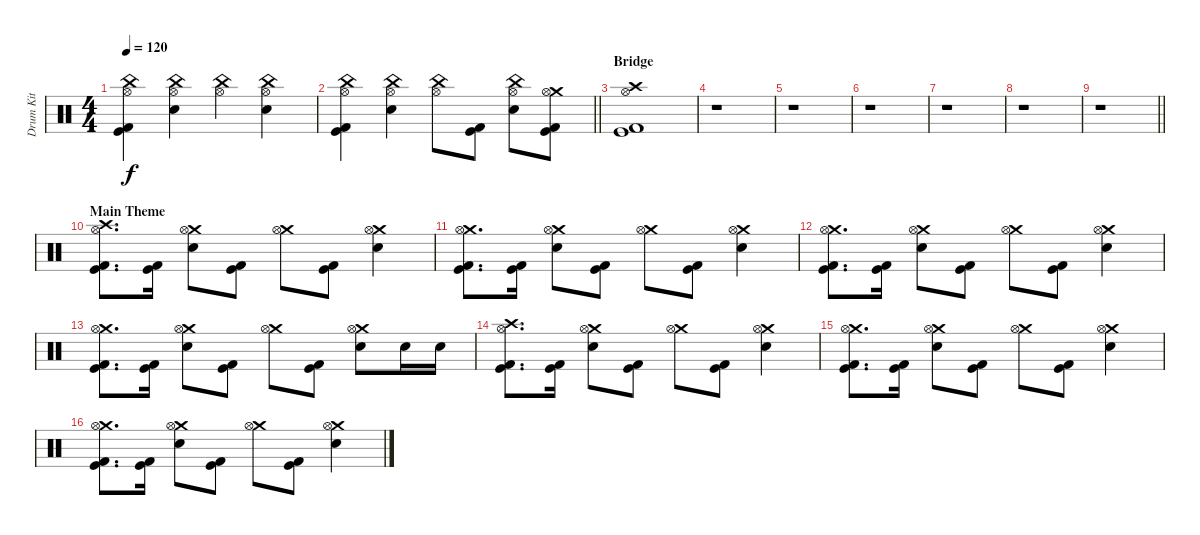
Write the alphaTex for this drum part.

\track ("Drum Kit" "Drum Kit") {instrument percussion}
\staff {score}
\articulation defaults
\ts (4 4)
\tempo 120
\clef neutral
\ks c
("China (hit)" "Hi-Hat (open)" "Kick (hit)" "Kick (hit) 2").4{dy f} ("China (hit)" "Hi-Hat (open)" "Electric Snare (hit)").4 ("China (hit)" "Hi-Hat (open)").4 ("China (hit)" "Hi-Hat (open)" "Electric Snare (hit)").4 |
\barLineRight lightlight
("China (hit)" "Hi-Hat (open)" "Kick (hit)" "Kick (hit) 2").4 ("China (hit)" "Hi-Hat (open)" "Electric Snare (hit)").4 ("China (hit)" "Hi-Hat (open)").8 ("Kick (hit)" "Kick (hit) 2").8 ("China (hit)" "Hi-Hat (open)" "Electric Snare (hit)").8 ("Crash medium (hit)" "Hi-Hat (open)" "Kick (hit)" "Kick (hit) 2").8 |
\section ("" "Bridge")
("Crash high (hit)" "Hi-Hat (open)" "Kick (hit)" "Kick (hit) 2").1 |
r.1 |
r.1 |
r.1 |
r.1 |
r.1 |
\barLineRight lightlight
r.1 |
\section ("" "Main Theme")
("Crash high (hit)" "Hi-Hat (open)" "Kick (hit)" "Kick (hit) 2").8{d} ("Kick (hit)" "Kick (hit) 2").16 ("Crash medium (hit)" "Hi-Hat (open)" "Electric Snare (hit)").8 ("Kick (hit)" "Kick (hit) 2").8 ("Crash medium (hit)" "Hi-Hat (open)").8 ("Kick (hit)" "Kick (hit) 2").8 ("Crash medium (hit)" "Hi-Hat (open)" "Electric Snare (hit)").4 |
("Crash medium (hit)" "Hi-Hat (open)" "Kick (hit)" "Kick (hit) 2").8{d} ("Kick (hit)" "Kick (hit) 2").16 ("Crash medium (hit)" "Hi-Hat (open)" "Electric Snare (hit)").8 ("Kick (hit)" "Kick (hit) 2").8 ("Crash medium (hit)" "Hi-Hat (open)").8 ("Kick (hit)" "Kick (hit) 2").8 ("Crash medium (hit)" "Hi-Hat (open)" "Electric Snare (hit)").4 |
("Crash medium (hit)" "Hi-Hat (open)" "Kick (hit)" "Kick (hit) 2").8{d} ("Kick (hit)" "Kick (hit) 2").16 ("Crash medium (hit)" "Hi-Hat (open)" "Electric Snare (hit)").8 ("Kick (hit)" "Kick (hit) 2").8 ("Crash medium (hit)" "Hi-Hat (open)").8 ("Kick (hit)" "Kick (hit) 2").8 ("Crash medium (hit)" "Hi-Hat (open)" "Electric Snare (hit)").4 |
("Crash medium (hit)" "Hi-Hat (open)" "Kick (hit)" "Kick (hit) 2").8{d} ("Kick (hit)" "Kick (hit) 2").16 ("Crash medium (hit)" "Hi-Hat (open)" "Electric Snare (hit)").8 ("Kick (hit)" "Kick (hit) 2").8 ("Crash medium (hit)" "Hi-Hat (open)").8 ("Kick (hit)" "Kick (hit) 2").8 ("Crash medium (hit)" "Hi-Hat (open)" "Electric Snare (hit)").8 "Electric Snare (hit)".16 "Electric Snare (hit)".16 |
("Crash high (hit)" "Hi-Hat (open)" "Kick (hit)" "Kick (hit) 2").8{d} ("Kick (hit)" "Kick (hit) 2").16 ("Crash medium (hit)" "Hi-Hat (open)" "Electric Snare (hit)").8 ("Kick (hit)" "Kick (hit) 2").8 ("Crash medium (hit)" "Hi-Hat (open)").8 ("Kick (hit)" "Kick (hit) 2").8 ("Crash medium (hit)" "Hi-Hat (open)" "Electric Snare (hit)").4 |
("Crash medium (hit)" "Hi-Hat (open)" "Kick (hit)" "Kick (hit) 2").8{d} ("Kick (hit)" "Kick (hit) 2").16 ("Crash medium (hit)" "Hi-Hat (open)" "Electric Snare (hit)").8 ("Kick (hit)" "Kick (hit) 2").8 ("Crash medium (hit)" "Hi-Hat (open)").8 ("Kick (hit)" "Kick (hit) 2").8 ("Crash medium (hit)" "Hi-Hat (open)" "Electric Snare (hit)").4 |
("Crash medium (hit)" "Hi-Hat (open)" "Kick (hit)" "Kick (hit) 2").8{d} ("Kick (hit)" "Kick (hit) 2").16 ("Crash medium (hit)" "Hi-Hat (open)" "Electric Snare (hit)").8 ("Kick (hit)" "Kick (hit) 2").8 ("Crash medium (hit)" "Hi-Hat (open)").8 ("Kick (hit)" "Kick (hit) 2").8 ("Crash medium (hit)" "Hi-Hat (open)" "Electric Snare (hit)").4
